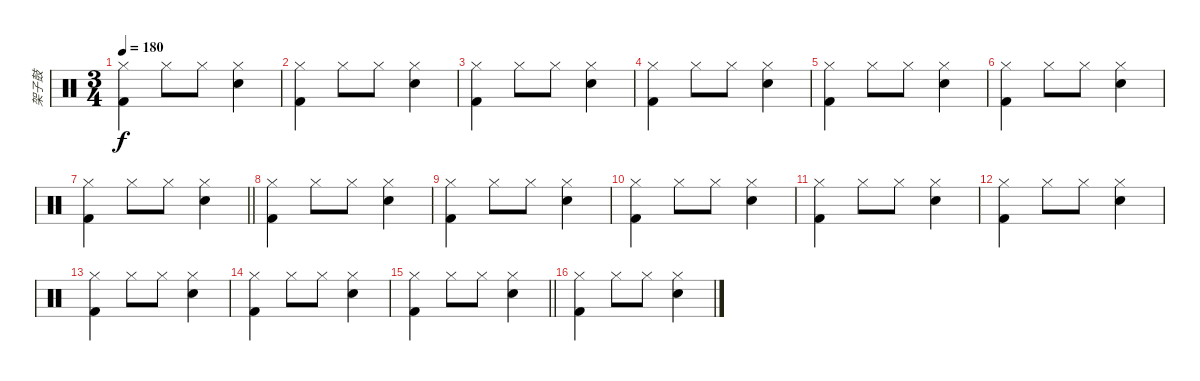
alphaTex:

\track ("架子鼓" "架子鼓") {instrument percussion}
\staff {score}
\articulation defaults
\ts (3 4)
\tempo 180
\clef neutral
\ks c
("Hi-Hat (closed)" "Kick (hit) 2").4{dy f} "Hi-Hat (closed)".8 "Hi-Hat (closed)".8 ("Hi-Hat (closed)" "Electric Snare (hit)").4 |
("Hi-Hat (closed)" "Kick (hit) 2").4 "Hi-Hat (closed)".8 "Hi-Hat (closed)".8 ("Hi-Hat (closed)" "Electric Snare (hit)").4 |
("Hi-Hat (closed)" "Kick (hit) 2").4 "Hi-Hat (closed)".8 "Hi-Hat (closed)".8 ("Hi-Hat (closed)" "Electric Snare (hit)").4 |
("Hi-Hat (closed)" "Kick (hit) 2").4 "Hi-Hat (closed)".8 "Hi-Hat (closed)".8 ("Hi-Hat (closed)" "Electric Snare (hit)").4 |
("Hi-Hat (closed)" "Kick (hit) 2").4 "Hi-Hat (closed)".8 "Hi-Hat (closed)".8 ("Hi-Hat (closed)" "Electric Snare (hit)").4 |
("Hi-Hat (closed)" "Kick (hit) 2").4 "Hi-Hat (closed)".8 "Hi-Hat (closed)".8 ("Hi-Hat (closed)" "Electric Snare (hit)").4 |
\barLineRight lightlight
("Hi-Hat (closed)" "Kick (hit) 2").4 "Hi-Hat (closed)".8 "Hi-Hat (closed)".8 ("Hi-Hat (closed)" "Electric Snare (hit)").4 |
("Hi-Hat (closed)" "Kick (hit) 2").4 "Hi-Hat (closed)".8 "Hi-Hat (closed)".8 ("Hi-Hat (closed)" "Electric Snare (hit)").4 |
("Hi-Hat (closed)" "Kick (hit) 2").4 "Hi-Hat (closed)".8 "Hi-Hat (closed)".8 ("Hi-Hat (closed)" "Electric Snare (hit)").4 |
("Hi-Hat (closed)" "Kick (hit) 2").4 "Hi-Hat (closed)".8 "Hi-Hat (closed)".8 ("Hi-Hat (closed)" "Electric Snare (hit)").4 |
("Hi-Hat (closed)" "Kick (hit) 2").4 "Hi-Hat (closed)".8 "Hi-Hat (closed)".8 ("Hi-Hat (closed)" "Electric Snare (hit)").4 |
("Hi-Hat (closed)" "Kick (hit) 2").4 "Hi-Hat (closed)".8 "Hi-Hat (closed)".8 ("Hi-Hat (closed)" "Electric Snare (hit)").4 |
("Hi-Hat (closed)" "Kick (hit) 2").4 "Hi-Hat (closed)".8 "Hi-Hat (closed)".8 ("Hi-Hat (closed)" "Electric Snare (hit)").4 |
("Hi-Hat (closed)" "Kick (hit) 2").4 "Hi-Hat (closed)".8 "Hi-Hat (closed)".8 ("Hi-Hat (closed)" "Electric Snare (hit)").4 |
\barLineRight lightlight
("Hi-Hat (closed)" "Kick (hit) 2").4 "Hi-Hat (closed)".8 "Hi-Hat (closed)".8 ("Hi-Hat (closed)" "Electric Snare (hit)").4 |
("Hi-Hat (closed)" "Kick (hit) 2").4 "Hi-Hat (closed)".8 "Hi-Hat (closed)".8 ("Hi-Hat (closed)" "Electric Snare (hit)").4
